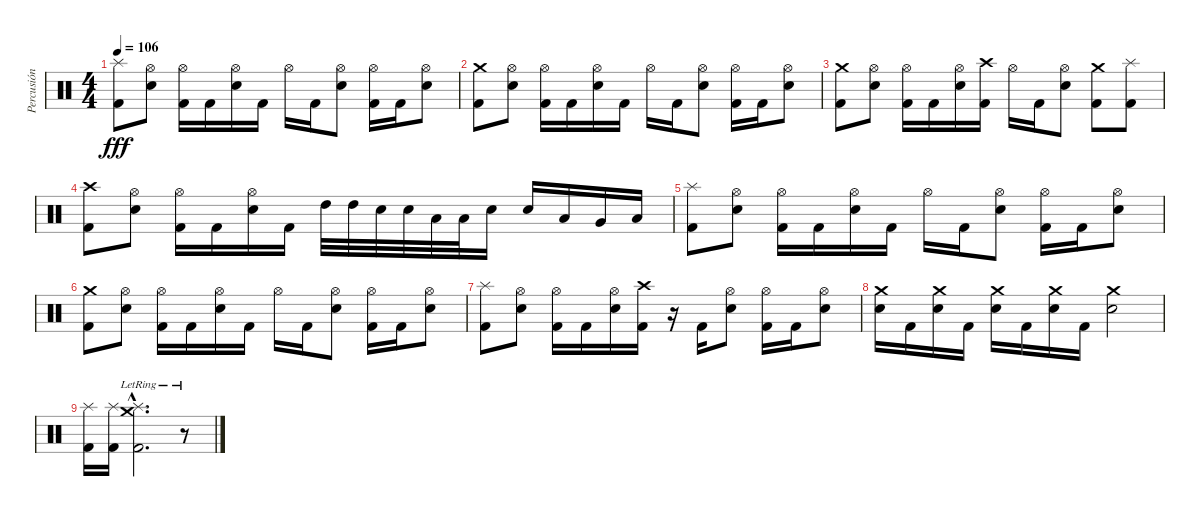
\track ("Percusión" "Percusión") {instrument percussion}
\staff {score}
\articulation defaults
\ts (4 4)
\tempo 106
\clef neutral
\ks c
("Splash (hit)" "Kick (hit) 2").8{dy fff} ("Hi-Hat (open)" "Snare (hit) 2").8 ("Hi-Hat (open)" "Kick (hit) 2").16 "Kick (hit) 2".16 ("Hi-Hat (open)" "Snare (hit) 2").16 "Kick (hit) 2".16 "Hi-Hat (open)".16 "Kick (hit) 2".16 ("Hi-Hat (open)" "Snare (hit) 2").8 ("Hi-Hat (open)" "Kick (hit) 2").16 "Kick (hit) 2".16 ("Hi-Hat (open)" "Snare (hit) 2").8 |
("Crash medium (hit)" "Kick (hit) 2").8 ("Hi-Hat (open)" "Snare (hit) 2").8 ("Hi-Hat (open)" "Kick (hit) 2").16 "Kick (hit) 2".16 ("Hi-Hat (open)" "Snare (hit) 2").16 "Kick (hit) 2".16 "Hi-Hat (open)".16 "Kick (hit) 2".16 ("Hi-Hat (open)" "Snare (hit) 2").8 ("Hi-Hat (open)" "Kick (hit) 2").16 "Kick (hit) 2".16 ("Hi-Hat (open)" "Snare (hit) 2").8 |
("Crash medium (hit)" "Kick (hit) 2").8 ("Hi-Hat (open)" "Snare (hit) 2").8 ("Hi-Hat (open)" "Kick (hit) 2").16 "Kick (hit) 2".16 ("Hi-Hat (open)" "Snare (hit) 2").16 ("Crash high (hit)" "Kick (hit) 2").16 "Hi-Hat (open)".16 "Kick (hit) 2".16 ("Hi-Hat (open)" "Snare (hit) 2").8 ("Crash medium (hit)" "Kick (hit) 2").8 ("Splash (hit)" "Kick (hit) 2").8 |
("Crash high (hit)" "Kick (hit) 2").8 ("Hi-Hat (open)" "Snare (hit) 2").8 ("Hi-Hat (open)" "Kick (hit) 2").16 "Kick (hit) 2".16 ("Hi-Hat (open)" "Snare (hit) 2").16 "Kick (hit) 2".16 "High Tom (hit)".32 "High Tom (hit)".32 "Snare (hit) 2".32 "Snare (hit) 2".32 "Low Tom (hit)".32 "Low Tom (hit)".32 "Snare (hit) 2".16 "Snare (hit) 2".16 "Low Tom (hit)".16 "Very Low Tom (hit)".16 "Low Floor Tom (hit)".16 |
("Splash (hit)" "Kick (hit) 2").8 ("Hi-Hat (open)" "Snare (hit) 2").8 ("Hi-Hat (open)" "Kick (hit) 2").16 "Kick (hit) 2".16 ("Hi-Hat (open)" "Snare (hit) 2").16 "Kick (hit) 2".16 "Hi-Hat (open)".16 "Kick (hit) 2".16 ("Hi-Hat (open)" "Snare (hit) 2").8 ("Hi-Hat (open)" "Kick (hit) 2").16 "Kick (hit) 2".16 ("Hi-Hat (open)" "Snare (hit) 2").8 |
("Crash medium (hit)" "Kick (hit) 2").8 ("Hi-Hat (open)" "Snare (hit) 2").8 ("Hi-Hat (open)" "Kick (hit) 2").16 "Kick (hit) 2".16 ("Hi-Hat (open)" "Snare (hit) 2").16 "Kick (hit) 2".16 "Hi-Hat (open)".16 "Kick (hit) 2".16 ("Hi-Hat (open)" "Snare (hit) 2").8 ("Hi-Hat (open)" "Kick (hit) 2").16 "Kick (hit) 2".16 ("Hi-Hat (open)" "Snare (hit) 2").8 |
("Splash (hit)" "Kick (hit) 2").8 ("Hi-Hat (open)" "Snare (hit) 2").8 ("Hi-Hat (open)" "Kick (hit) 2").16 "Kick (hit) 2".16 ("Hi-Hat (open)" "Snare (hit) 2").16 ("Crash high (hit)" "Kick (hit) 2").16 r.16 "Kick (hit) 2".16 ("Hi-Hat (open)" "Snare (hit) 2").8 ("Hi-Hat (open)" "Kick (hit) 2").16 "Kick (hit) 2".16 ("Hi-Hat (open)" "Snare (hit) 2").8 |
("Crash medium (hit)" "Snare (hit) 2").16 "Kick (hit) 2".16 ("Crash medium (hit)" "Snare (hit) 2").16 "Kick (hit) 2".16 ("Crash medium (hit)" "Snare (hit) 2").16 "Kick (hit) 2".16 ("Crash medium (hit)" "Snare (hit) 2").16 "Kick (hit) 2".16 ("Crash medium (hit)" "Snare (hit) 2").2 |
("Splash (hit)" "Kick (hit) 2").16 ("Splash (hit)" "Kick (hit) 2").16 ("Crash medium (hit)"{hac lr} "Splash (hit)"{hac lr} "Kick (hit) 2"{hac}).2{d} r.8
